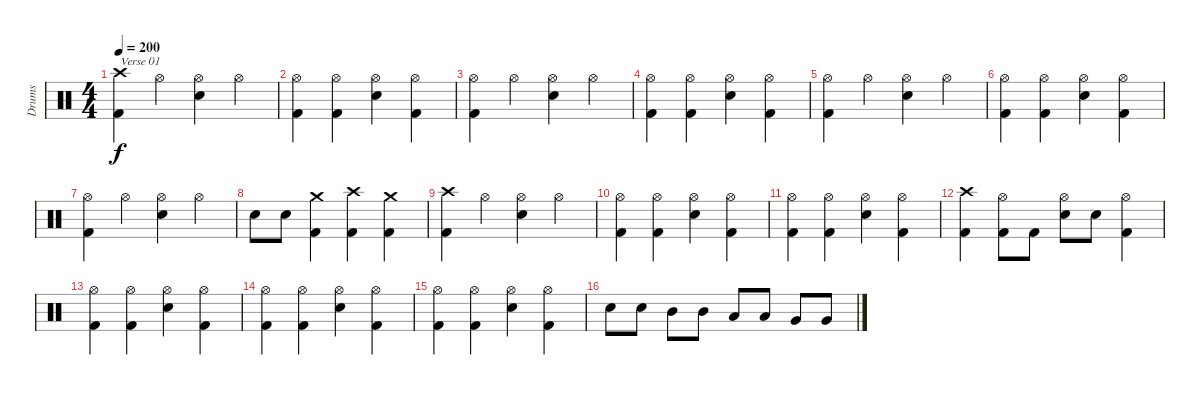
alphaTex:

\track ("Drums" "Drums") {instrument percussion}
\staff {score}
\articulation defaults
\ts (4 4)
\tempo 200
\clef neutral
\ks c
("Crash high (hit)" "Kick (hit) 2").4{txt "Verse 01" dy f} "Hi-Hat (open)".4 ("Hi-Hat (open)" "Electric Snare (hit)").4 "Hi-Hat (open)".4 |
("Hi-Hat (open)" "Kick (hit) 2").4 ("Hi-Hat (open)" "Kick (hit) 2").4 ("Hi-Hat (open)" "Electric Snare (hit)").4 ("Hi-Hat (open)" "Kick (hit) 2").4 |
("Hi-Hat (open)" "Kick (hit) 2").4 "Hi-Hat (open)".4 ("Hi-Hat (open)" "Electric Snare (hit)").4 "Hi-Hat (open)".4 |
("Hi-Hat (open)" "Kick (hit) 2").4 ("Hi-Hat (open)" "Kick (hit) 2").4 ("Hi-Hat (open)" "Electric Snare (hit)").4 ("Hi-Hat (open)" "Kick (hit) 2").4 |
("Hi-Hat (open)" "Kick (hit) 2").4 "Hi-Hat (open)".4 ("Hi-Hat (open)" "Electric Snare (hit)").4 "Hi-Hat (open)".4 |
("Hi-Hat (open)" "Kick (hit) 2").4 ("Hi-Hat (open)" "Kick (hit) 2").4 ("Hi-Hat (open)" "Electric Snare (hit)").4 ("Hi-Hat (open)" "Kick (hit) 2").4 |
("Hi-Hat (open)" "Kick (hit) 2").4 "Hi-Hat (open)".4 ("Hi-Hat (open)" "Electric Snare (hit)").4 "Hi-Hat (open)".4 |
"Electric Snare (hit)".8 "Electric Snare (hit)".8 ("Crash medium (hit)" "Kick (hit) 2").4 ("Crash high (hit)" "Kick (hit) 2").4 ("Crash medium (hit)" "Kick (hit) 2").4 |
("Crash high (hit)" "Kick (hit) 2").4 "Hi-Hat (open)".4 ("Hi-Hat (open)" "Electric Snare (hit)").4 "Hi-Hat (open)".4 |
("Hi-Hat (open)" "Kick (hit) 2").4 ("Hi-Hat (open)" "Kick (hit) 2").4 ("Hi-Hat (open)" "Electric Snare (hit)").4 ("Hi-Hat (open)" "Kick (hit) 2").4 |
("Hi-Hat (open)" "Kick (hit) 2").4 ("Hi-Hat (open)" "Kick (hit) 2").4 ("Hi-Hat (open)" "Electric Snare (hit)").4 ("Hi-Hat (open)" "Kick (hit) 2").4 |
("Crash high (hit)" "Kick (hit) 2").4 ("Hi-Hat (open)" "Kick (hit) 2").8 "Kick (hit) 2".8 ("Hi-Hat (open)" "Electric Snare (hit)").8 "Electric Snare (hit)".8 ("Hi-Hat (open)" "Kick (hit) 2").4 |
("Hi-Hat (open)" "Kick (hit) 2").4 ("Hi-Hat (open)" "Kick (hit) 2").4 ("Hi-Hat (open)" "Electric Snare (hit)").4 ("Hi-Hat (open)" "Kick (hit) 2").4 |
("Hi-Hat (open)" "Kick (hit) 2").4 ("Hi-Hat (open)" "Kick (hit) 2").4 ("Hi-Hat (open)" "Electric Snare (hit)").4 ("Hi-Hat (open)" "Kick (hit) 2").4 |
("Hi-Hat (open)" "Kick (hit) 2").4 ("Hi-Hat (open)" "Kick (hit) 2").4 ("Hi-Hat (open)" "Electric Snare (hit)").4 ("Hi-Hat (open)" "Kick (hit) 2").4 |
"Electric Snare (hit)".8 "Electric Snare (hit)".8 "Mid Tom (hit)".8 "Mid Tom (hit)".8 "Low Tom (hit)".8 "Low Tom (hit)".8 "Very Low Tom (hit)".8 "Very Low Tom (hit)".8
